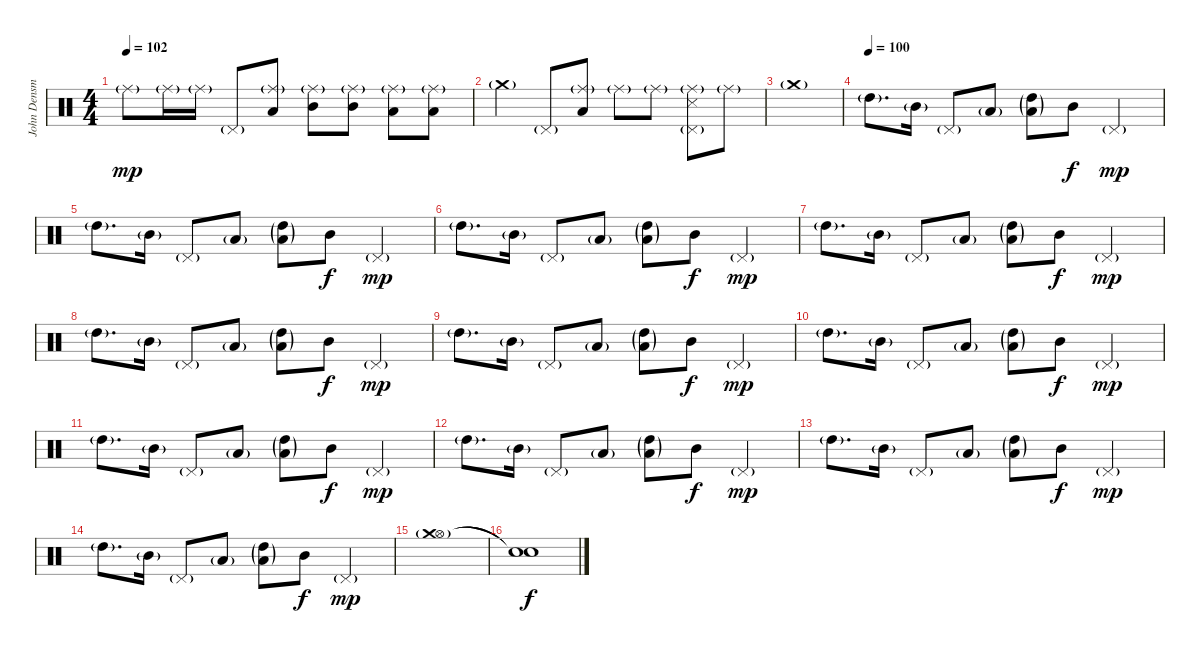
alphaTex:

\track ("John Densmore - Drums" "John Densm") {instrument percussion}
\staff {score}
\articulation defaults
\ts (4 4)
\tempo 102
\clef neutral
\ks c "Ride (middle)"{g}.8{dy mp} "Ride (middle)"{g}.16 "Ride (middle)"{g}.16 "Pedal Hi-Hat (hit)"{g}.8
("Ride (middle)"{g} "Low Tom (hit)").8 ("Ride (middle)"{g} "Mid Tom (hit)").8 ("Ride (middle)"{g} "Mid Tom (hit)").8 ("Ride (middle)"{g} "Low Tom (hit)").8 ("Ride (middle)"{g} "Low Tom (hit)").8 |
"Crash medium (hit)"{g}.4 "Pedal Hi-Hat (hit)"{g}.8 ("Ride (middle)"{g} "Low Tom (hit)").8 "Ride (middle)"{g}.8 "Ride (middle)"{g}.8 ("Ride (middle)"{g} "Pedal Hi-Hat (hit)"{g} "Snare (side stick) 3").8 "Ride (middle)"{g}.8 |
"Crash medium (hit)"{g}.1 |
\tempo (100)
"High Tom (hit)"{g}.8{d} "Mid Tom (hit)"{g}.16 "Pedal Hi-Hat (hit)"{g}.8 "Low Tom (hit)"{g}.8 ("Low Tom (hit)"{g} "High Tom (hit)"{g}).8 "Mid Tom (hit)".8{dy f} "Pedal Hi-Hat (hit)"{g}.4{dy mp} |
"High Tom (hit)"{g}.8{d} "Mid Tom (hit)"{g}.16 "Pedal Hi-Hat (hit)"{g}.8 "Low Tom (hit)"{g}.8 ("Low Tom (hit)"{g} "High Tom (hit)"{g}).8 "Mid Tom (hit)".8{dy f} "Pedal Hi-Hat (hit)"{g}.4{dy mp} |
"High Tom (hit)"{g}.8{d} "Mid Tom (hit)"{g}.16 "Pedal Hi-Hat (hit)"{g}.8 "Low Tom (hit)"{g}.8 ("Low Tom (hit)"{g} "High Tom (hit)"{g}).8 "Mid Tom (hit)".8{dy f} "Pedal Hi-Hat (hit)"{g}.4{dy mp} |
"High Tom (hit)"{g}.8{d} "Mid Tom (hit)"{g}.16 "Pedal Hi-Hat (hit)"{g}.8 "Low Tom (hit)"{g}.8 ("Low Tom (hit)"{g} "High Tom (hit)"{g}).8 "Mid Tom (hit)".8{dy f} "Pedal Hi-Hat (hit)"{g}.4{dy mp} |
"High Tom (hit)"{g}.8{d} "Mid Tom (hit)"{g}.16 "Pedal Hi-Hat (hit)"{g}.8 "Low Tom (hit)"{g}.8 ("Low Tom (hit)"{g} "High Tom (hit)"{g}).8 "Mid Tom (hit)".8{dy f} "Pedal Hi-Hat (hit)"{g}.4{dy mp} |
"High Tom (hit)"{g}.8{d} "Mid Tom (hit)"{g}.16 "Pedal Hi-Hat (hit)"{g}.8 "Low Tom (hit)"{g}.8 ("Low Tom (hit)"{g} "High Tom (hit)"{g}).8 "Mid Tom (hit)".8{dy f} "Pedal Hi-Hat (hit)"{g}.4{dy mp} |
"High Tom (hit)"{g}.8{d} "Mid Tom (hit)"{g}.16 "Pedal Hi-Hat (hit)"{g}.8 "Low Tom (hit)"{g}.8 ("Low Tom (hit)"{g} "High Tom (hit)"{g}).8 "Mid Tom (hit)".8{dy f} "Pedal Hi-Hat (hit)"{g}.4{dy mp} |
"High Tom (hit)"{g}.8{d} "Mid Tom (hit)"{g}.16 "Pedal Hi-Hat (hit)"{g}.8 "Low Tom (hit)"{g}.8 ("Low Tom (hit)"{g} "High Tom (hit)"{g}).8 "Mid Tom (hit)".8{dy f} "Pedal Hi-Hat (hit)"{g}.4{dy mp} |
"High Tom (hit)"{g}.8{d} "Mid Tom (hit)"{g}.16 "Pedal Hi-Hat (hit)"{g}.8 "Low Tom (hit)"{g}.8 ("Low Tom (hit)"{g} "High Tom (hit)"{g}).8 "Mid Tom (hit)".8{dy f} "Pedal Hi-Hat (hit)"{g}.4{dy mp} |
"High Tom (hit)"{g}.8{d} "Mid Tom (hit)"{g}.16 "Pedal Hi-Hat (hit)"{g}.8 "Low Tom (hit)"{g}.8 ("Low Tom (hit)"{g} "High Tom (hit)"{g}).8 "Mid Tom (hit)".8{dy f} "Pedal Hi-Hat (hit)"{g}.4{dy mp} |
"High Tom (hit)"{g}.8{d} "Mid Tom (hit)"{g}.16 "Pedal Hi-Hat (hit)"{g}.8 "Low Tom (hit)"{g}.8 ("Low Tom (hit)"{g} "High Tom (hit)"{g}).8 "Mid Tom (hit)".8{dy f} "Pedal Hi-Hat (hit)"{g}.4{dy mp} |
("Hi-Hat (open)"{g} "Crash medium (hit)"{g}).1 |
("Snare (hit)"{t} "Snare (hit)"{t}).1{dy f}
